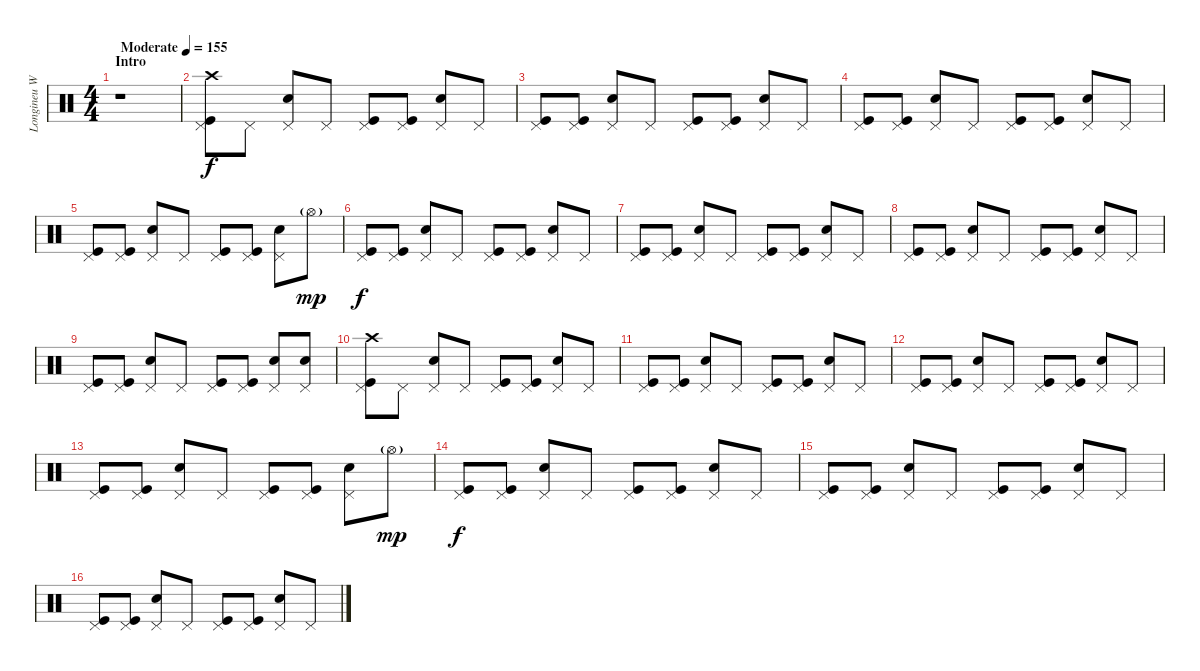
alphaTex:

\track ("Longineu W. Parsons III - Drums" "Longineu W") {instrument percussion}
\staff {score}
\articulation defaults
\ts (4 4)
\section ("" "Intro")
\tempo (155 "Moderate")
\clef neutral
\ks c
r.1{dy f} |
("Crash high (hit)" "Pedal Hi-Hat (hit)" "Kick (hit)").8 "Pedal Hi-Hat (hit)".8 ("Pedal Hi-Hat (hit)" "Snare (hit) 2").8 "Pedal Hi-Hat (hit)".8 ("Pedal Hi-Hat (hit)" "Kick (hit)").8 ("Pedal Hi-Hat (hit)" "Kick (hit)").8 ("Pedal Hi-Hat (hit)" "Snare (hit) 2").8 "Pedal Hi-Hat (hit)".8 |
("Pedal Hi-Hat (hit)" "Kick (hit)").8 ("Pedal Hi-Hat (hit)" "Kick (hit)").8 ("Pedal Hi-Hat (hit)" "Snare (hit) 2").8 "Pedal Hi-Hat (hit)".8 ("Pedal Hi-Hat (hit)" "Kick (hit)").8 ("Pedal Hi-Hat (hit)" "Kick (hit)").8 ("Pedal Hi-Hat (hit)" "Snare (hit) 2").8 "Pedal Hi-Hat (hit)".8 |
("Pedal Hi-Hat (hit)" "Kick (hit)").8 ("Pedal Hi-Hat (hit)" "Kick (hit)").8 ("Pedal Hi-Hat (hit)" "Snare (hit) 2").8 "Pedal Hi-Hat (hit)".8 ("Pedal Hi-Hat (hit)" "Kick (hit)").8 ("Pedal Hi-Hat (hit)" "Kick (hit)").8 ("Pedal Hi-Hat (hit)" "Snare (hit) 2").8 "Pedal Hi-Hat (hit)".8 |
("Pedal Hi-Hat (hit)" "Kick (hit)").8 ("Pedal Hi-Hat (hit)" "Kick (hit)").8 ("Pedal Hi-Hat (hit)" "Snare (hit) 2").8 "Pedal Hi-Hat (hit)".8 ("Pedal Hi-Hat (hit)" "Kick (hit)").8 ("Pedal Hi-Hat (hit)" "Kick (hit)").8 ("Pedal Hi-Hat (hit)" "Snare (hit) 2").8 "Hi-Hat (open)"{g}.8{dy mp} |
("Pedal Hi-Hat (hit)" "Kick (hit)").8{dy f} ("Pedal Hi-Hat (hit)" "Kick (hit)").8 ("Pedal Hi-Hat (hit)" "Snare (hit) 2").8 "Pedal Hi-Hat (hit)".8 ("Pedal Hi-Hat (hit)" "Kick (hit)").8 ("Pedal Hi-Hat (hit)" "Kick (hit)").8 ("Pedal Hi-Hat (hit)" "Snare (hit) 2").8 "Pedal Hi-Hat (hit)".8 |
("Pedal Hi-Hat (hit)" "Kick (hit)").8 ("Pedal Hi-Hat (hit)" "Kick (hit)").8 ("Pedal Hi-Hat (hit)" "Snare (hit) 2").8 "Pedal Hi-Hat (hit)".8 ("Pedal Hi-Hat (hit)" "Kick (hit)").8 ("Pedal Hi-Hat (hit)" "Kick (hit)").8 ("Pedal Hi-Hat (hit)" "Snare (hit) 2").8 "Pedal Hi-Hat (hit)".8 |
("Pedal Hi-Hat (hit)" "Kick (hit)").8 ("Pedal Hi-Hat (hit)" "Kick (hit)").8 ("Pedal Hi-Hat (hit)" "Snare (hit) 2").8 "Pedal Hi-Hat (hit)".8 ("Pedal Hi-Hat (hit)" "Kick (hit)").8 ("Pedal Hi-Hat (hit)" "Kick (hit)").8 ("Pedal Hi-Hat (hit)" "Snare (hit) 2").8 "Pedal Hi-Hat (hit)".8 |
("Pedal Hi-Hat (hit)" "Kick (hit)").8 ("Pedal Hi-Hat (hit)" "Kick (hit)").8 ("Pedal Hi-Hat (hit)" "Snare (hit) 2").8 "Pedal Hi-Hat (hit)".8 ("Pedal Hi-Hat (hit)" "Kick (hit)").8 ("Pedal Hi-Hat (hit)" "Kick (hit)").8 ("Pedal Hi-Hat (hit)" "Snare (hit) 2").8 ("Pedal Hi-Hat (hit)" "Snare (hit) 2").8 |
("Crash high (hit)" "Pedal Hi-Hat (hit)" "Kick (hit)").8 "Pedal Hi-Hat (hit)".8 ("Pedal Hi-Hat (hit)" "Snare (hit) 2").8 "Pedal Hi-Hat (hit)".8 ("Pedal Hi-Hat (hit)" "Kick (hit)").8 ("Pedal Hi-Hat (hit)" "Kick (hit)").8 ("Pedal Hi-Hat (hit)" "Snare (hit) 2").8 "Pedal Hi-Hat (hit)".8 |
("Pedal Hi-Hat (hit)" "Kick (hit)").8 ("Pedal Hi-Hat (hit)" "Kick (hit)").8 ("Pedal Hi-Hat (hit)" "Snare (hit) 2").8 "Pedal Hi-Hat (hit)".8 ("Pedal Hi-Hat (hit)" "Kick (hit)").8 ("Pedal Hi-Hat (hit)" "Kick (hit)").8 ("Pedal Hi-Hat (hit)" "Snare (hit) 2").8 "Pedal Hi-Hat (hit)".8 |
("Pedal Hi-Hat (hit)" "Kick (hit)").8 ("Pedal Hi-Hat (hit)" "Kick (hit)").8 ("Pedal Hi-Hat (hit)" "Snare (hit) 2").8 "Pedal Hi-Hat (hit)".8 ("Pedal Hi-Hat (hit)" "Kick (hit)").8 ("Pedal Hi-Hat (hit)" "Kick (hit)").8 ("Pedal Hi-Hat (hit)" "Snare (hit) 2").8 "Pedal Hi-Hat (hit)".8 |
("Pedal Hi-Hat (hit)" "Kick (hit)").8 ("Pedal Hi-Hat (hit)" "Kick (hit)").8 ("Pedal Hi-Hat (hit)" "Snare (hit) 2").8 "Pedal Hi-Hat (hit)".8 ("Pedal Hi-Hat (hit)" "Kick (hit)").8 ("Pedal Hi-Hat (hit)" "Kick (hit)").8 ("Pedal Hi-Hat (hit)" "Snare (hit) 2").8 "Hi-Hat (open)"{g}.8{dy mp} |
("Pedal Hi-Hat (hit)" "Kick (hit)").8{dy f} ("Pedal Hi-Hat (hit)" "Kick (hit)").8 ("Pedal Hi-Hat (hit)" "Snare (hit) 2").8 "Pedal Hi-Hat (hit)".8 ("Pedal Hi-Hat (hit)" "Kick (hit)").8 ("Pedal Hi-Hat (hit)" "Kick (hit)").8 ("Pedal Hi-Hat (hit)" "Snare (hit) 2").8 "Pedal Hi-Hat (hit)".8 |
("Pedal Hi-Hat (hit)" "Kick (hit)").8 ("Pedal Hi-Hat (hit)" "Kick (hit)").8 ("Pedal Hi-Hat (hit)" "Snare (hit) 2").8 "Pedal Hi-Hat (hit)".8 ("Pedal Hi-Hat (hit)" "Kick (hit)").8 ("Pedal Hi-Hat (hit)" "Kick (hit)").8 ("Pedal Hi-Hat (hit)" "Snare (hit) 2").8 "Pedal Hi-Hat (hit)".8 |
("Pedal Hi-Hat (hit)" "Kick (hit)").8 ("Pedal Hi-Hat (hit)" "Kick (hit)").8 ("Pedal Hi-Hat (hit)" "Snare (hit) 2").8 "Pedal Hi-Hat (hit)".8 ("Pedal Hi-Hat (hit)" "Kick (hit)").8 ("Pedal Hi-Hat (hit)" "Kick (hit)").8 ("Pedal Hi-Hat (hit)" "Snare (hit) 2").8 "Pedal Hi-Hat (hit)".8
